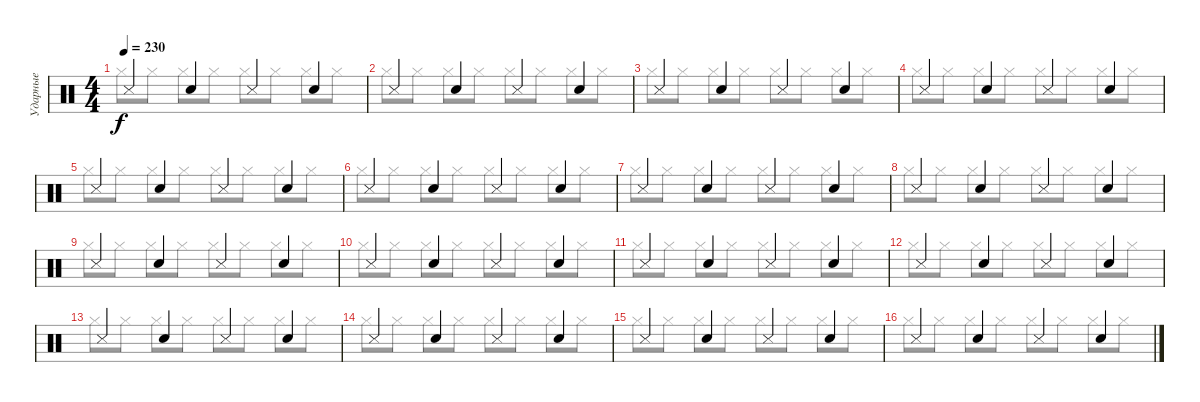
\track ("Ударные" "Ударные") {instrument percussion}
\staff {score}
\articulation defaults
\voice
\ts (4 4)
\tempo 230
\clef neutral
\ks c "Snare (side stick) 3".4{dy f} "Hand Clap (hit)".4 "Snare (side stick) 3".4 "Hand Clap (hit)".4
|
"Snare (side stick) 3".4 "Hand Clap (hit)".4 "Snare (side stick) 3".4 "Hand Clap (hit)".4 |
"Snare (side stick) 3".4 "Hand Clap (hit)".4 "Snare (side stick) 3".4 "Hand Clap (hit)".4 |
"Snare (side stick) 3".4 "Hand Clap (hit)".4 "Snare (side stick) 3".4 "Hand Clap (hit)".4 |
"Snare (side stick) 3".4 "Hand Clap (hit)".4 "Snare (side stick) 3".4 "Hand Clap (hit)".4 |
"Snare (side stick) 3".4 "Hand Clap (hit)".4 "Snare (side stick) 3".4 "Hand Clap (hit)".4 |
"Snare (side stick) 3".4 "Hand Clap (hit)".4 "Snare (side stick) 3".4 "Hand Clap (hit)".4 |
"Snare (side stick) 3".4 "Hand Clap (hit)".4 "Snare (side stick) 3".4 "Hand Clap (hit)".4 |
"Snare (side stick) 3".4 "Hand Clap (hit)".4 "Snare (side stick) 3".4 "Hand Clap (hit)".4 |
"Snare (side stick) 3".4 "Hand Clap (hit)".4 "Snare (side stick) 3".4 "Hand Clap (hit)".4 |
"Snare (side stick) 3".4 "Hand Clap (hit)".4 "Snare (side stick) 3".4 "Hand Clap (hit)".4 |
"Snare (side stick) 3".4 "Hand Clap (hit)".4 "Snare (side stick) 3".4 "Hand Clap (hit)".4 |
"Snare (side stick) 3".4 "Hand Clap (hit)".4 "Snare (side stick) 3".4 "Hand Clap (hit)".4 |
"Snare (side stick) 3".4 "Hand Clap (hit)".4 "Snare (side stick) 3".4 "Hand Clap (hit)".4 |
"Snare (side stick) 3".4 "Hand Clap (hit)".4 "Snare (side stick) 3".4 "Hand Clap (hit)".4 |
"Snare (side stick) 3".4 "Hand Clap (hit)".4 "Snare (side stick) 3".4 "Hand Clap (hit)".4
\voice
\clef neutral
\ottava regular
\simile none
\ks c "Hi-Hat (closed)".8{dy f} "Hi-Hat (closed)".8 "Hi-Hat (closed)".8 "Hi-Hat (closed)".8 "Hi-Hat (closed)".8 "Hi-Hat (closed)".8 "Hi-Hat (closed)".8 "Hi-Hat (closed)".8
|
"Hi-Hat (closed)".8 "Hi-Hat (closed)".8 "Hi-Hat (closed)".8 "Hi-Hat (closed)".8 "Hi-Hat (closed)".8 "Hi-Hat (closed)".8 "Hi-Hat (closed)".8 "Hi-Hat (closed)".8 |
"Hi-Hat (closed)".8 "Hi-Hat (closed)".8 "Hi-Hat (closed)".8 "Hi-Hat (closed)".8 "Hi-Hat (closed)".8 "Hi-Hat (closed)".8 "Hi-Hat (closed)".8 "Hi-Hat (closed)".8 |
"Hi-Hat (closed)".8 "Hi-Hat (closed)".8 "Hi-Hat (closed)".8 "Hi-Hat (closed)".8 "Hi-Hat (closed)".8 "Hi-Hat (closed)".8 "Hi-Hat (closed)".8 "Hi-Hat (closed)".8 |
"Hi-Hat (closed)".8 "Hi-Hat (closed)".8 "Hi-Hat (closed)".8 "Hi-Hat (closed)".8 "Hi-Hat (closed)".8 "Hi-Hat (closed)".8 "Hi-Hat (closed)".8 "Hi-Hat (closed)".8 |
"Hi-Hat (closed)".8 "Hi-Hat (closed)".8 "Hi-Hat (closed)".8 "Hi-Hat (closed)".8 "Hi-Hat (closed)".8 "Hi-Hat (closed)".8 "Hi-Hat (closed)".8 "Hi-Hat (closed)".8 |
"Hi-Hat (closed)".8 "Hi-Hat (closed)".8 "Hi-Hat (closed)".8 "Hi-Hat (closed)".8 "Hi-Hat (closed)".8 "Hi-Hat (closed)".8 "Hi-Hat (closed)".8 "Hi-Hat (closed)".8 |
"Hi-Hat (closed)".8 "Hi-Hat (closed)".8 "Hi-Hat (closed)".8 "Hi-Hat (closed)".8 "Hi-Hat (closed)".8 "Hi-Hat (closed)".8 "Hi-Hat (closed)".8 "Hi-Hat (closed)".8 |
"Hi-Hat (closed)".8 "Hi-Hat (closed)".8 "Hi-Hat (closed)".8 "Hi-Hat (closed)".8 "Hi-Hat (closed)".8 "Hi-Hat (closed)".8 "Hi-Hat (closed)".8 "Hi-Hat (closed)".8 |
"Hi-Hat (closed)".8 "Hi-Hat (closed)".8 "Hi-Hat (closed)".8 "Hi-Hat (closed)".8 "Hi-Hat (closed)".8 "Hi-Hat (closed)".8 "Hi-Hat (closed)".8 "Hi-Hat (closed)".8 |
"Hi-Hat (closed)".8 "Hi-Hat (closed)".8 "Hi-Hat (closed)".8 "Hi-Hat (closed)".8 "Hi-Hat (closed)".8 "Hi-Hat (closed)".8 "Hi-Hat (closed)".8 "Hi-Hat (closed)".8 |
"Hi-Hat (closed)".8 "Hi-Hat (closed)".8 "Hi-Hat (closed)".8 "Hi-Hat (closed)".8 "Hi-Hat (closed)".8 "Hi-Hat (closed)".8 "Hi-Hat (closed)".8 "Hi-Hat (closed)".8 |
"Hi-Hat (closed)".8 "Hi-Hat (closed)".8 "Hi-Hat (closed)".8 "Hi-Hat (closed)".8 "Hi-Hat (closed)".8 "Hi-Hat (closed)".8 "Hi-Hat (closed)".8 "Hi-Hat (closed)".8 |
"Hi-Hat (closed)".8 "Hi-Hat (closed)".8 "Hi-Hat (closed)".8 "Hi-Hat (closed)".8 "Hi-Hat (closed)".8 "Hi-Hat (closed)".8 "Hi-Hat (closed)".8 "Hi-Hat (closed)".8 |
"Hi-Hat (closed)".8 "Hi-Hat (closed)".8 "Hi-Hat (closed)".8 "Hi-Hat (closed)".8 "Hi-Hat (closed)".8 "Hi-Hat (closed)".8 "Hi-Hat (closed)".8 "Hi-Hat (closed)".8 |
"Hi-Hat (closed)".8 "Hi-Hat (closed)".8 "Hi-Hat (closed)".8 "Hi-Hat (closed)".8 "Hi-Hat (closed)".8 "Hi-Hat (closed)".8 "Hi-Hat (closed)".8 "Hi-Hat (closed)".8
